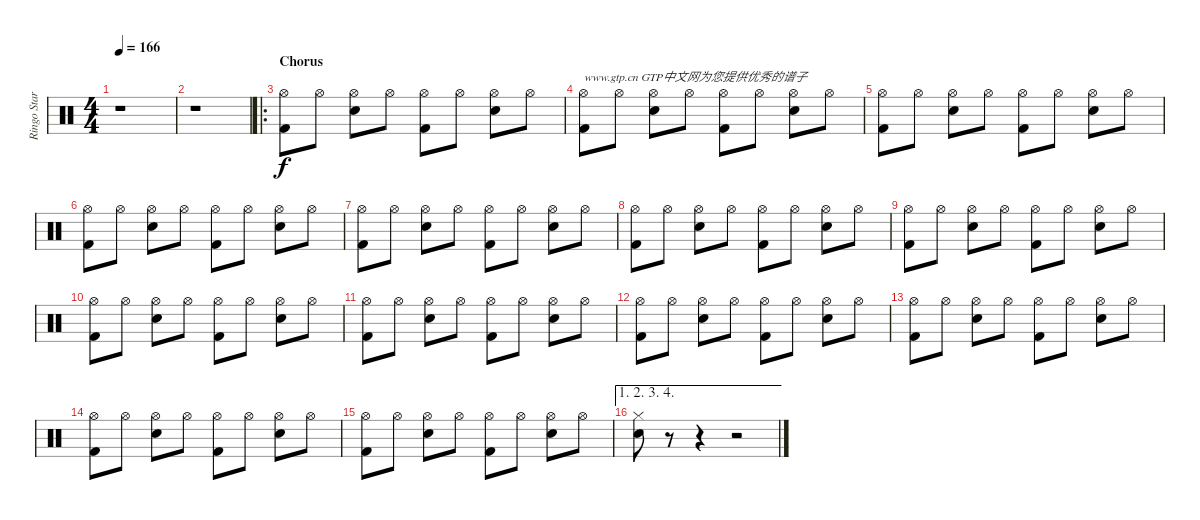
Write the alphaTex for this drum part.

\track ("Ringo Starr" "Ringo Star") {instrument percussion}
\staff {score}
\articulation defaults
\ts (4 4)
\tempo 166
\clef neutral
\ks c
r.1{dy f} |
r.1 |
\ro
\section ("" "Chorus")
("Hi-Hat (open)" "Kick (hit) 2").8 "Hi-Hat (open)".8 ("Hi-Hat (open)" "Electric Snare (hit)").8 "Hi-Hat (open)".8 ("Hi-Hat (open)" "Kick (hit) 2").8 "Hi-Hat (open)".8 ("Hi-Hat (open)" "Electric Snare (hit)").8 "Hi-Hat (open)".8 |
("Hi-Hat (open)" "Kick (hit) 2").8{txt "www.gtp.cn GTP中文网为您提供优秀的谱子"} "Hi-Hat (open)".8 ("Hi-Hat (open)" "Electric Snare (hit)").8 "Hi-Hat (open)".8 ("Hi-Hat (open)" "Kick (hit) 2").8 "Hi-Hat (open)".8 ("Hi-Hat (open)" "Electric Snare (hit)").8 "Hi-Hat (open)".8 |
("Hi-Hat (open)" "Kick (hit) 2").8 "Hi-Hat (open)".8 ("Hi-Hat (open)" "Electric Snare (hit)").8 "Hi-Hat (open)".8 ("Hi-Hat (open)" "Kick (hit) 2").8 "Hi-Hat (open)".8 ("Hi-Hat (open)" "Electric Snare (hit)").8 "Hi-Hat (open)".8 |
("Hi-Hat (open)" "Kick (hit) 2").8 "Hi-Hat (open)".8 ("Hi-Hat (open)" "Electric Snare (hit)").8 "Hi-Hat (open)".8 ("Hi-Hat (open)" "Kick (hit) 2").8 "Hi-Hat (open)".8 ("Hi-Hat (open)" "Electric Snare (hit)").8 "Hi-Hat (open)".8 |
("Hi-Hat (open)" "Kick (hit) 2").8 "Hi-Hat (open)".8 ("Hi-Hat (open)" "Electric Snare (hit)").8 "Hi-Hat (open)".8 ("Hi-Hat (open)" "Kick (hit) 2").8 "Hi-Hat (open)".8 ("Hi-Hat (open)" "Electric Snare (hit)").8 "Hi-Hat (open)".8 |
("Hi-Hat (open)" "Kick (hit) 2").8 "Hi-Hat (open)".8 ("Hi-Hat (open)" "Electric Snare (hit)").8 "Hi-Hat (open)".8 ("Hi-Hat (open)" "Kick (hit) 2").8 "Hi-Hat (open)".8 ("Hi-Hat (open)" "Electric Snare (hit)").8 "Hi-Hat (open)".8 |
("Hi-Hat (open)" "Kick (hit) 2").8 "Hi-Hat (open)".8 ("Hi-Hat (open)" "Electric Snare (hit)").8 "Hi-Hat (open)".8 ("Hi-Hat (open)" "Kick (hit) 2").8 "Hi-Hat (open)".8 ("Hi-Hat (open)" "Electric Snare (hit)").8 "Hi-Hat (open)".8 |
("Hi-Hat (open)" "Kick (hit) 2").8 "Hi-Hat (open)".8 ("Hi-Hat (open)" "Electric Snare (hit)").8 "Hi-Hat (open)".8 ("Hi-Hat (open)" "Kick (hit) 2").8 "Hi-Hat (open)".8 ("Hi-Hat (open)" "Electric Snare (hit)").8 "Hi-Hat (open)".8 |
("Hi-Hat (open)" "Kick (hit) 2").8 "Hi-Hat (open)".8 ("Hi-Hat (open)" "Electric Snare (hit)").8 "Hi-Hat (open)".8 ("Hi-Hat (open)" "Kick (hit) 2").8 "Hi-Hat (open)".8 ("Hi-Hat (open)" "Electric Snare (hit)").8 "Hi-Hat (open)".8 |
("Hi-Hat (open)" "Kick (hit) 2").8 "Hi-Hat (open)".8 ("Hi-Hat (open)" "Electric Snare (hit)").8 "Hi-Hat (open)".8 ("Hi-Hat (open)" "Kick (hit) 2").8 "Hi-Hat (open)".8 ("Hi-Hat (open)" "Electric Snare (hit)").8 "Hi-Hat (open)".8 |
("Hi-Hat (open)" "Kick (hit) 2").8 "Hi-Hat (open)".8 ("Hi-Hat (open)" "Electric Snare (hit)").8 "Hi-Hat (open)".8 ("Hi-Hat (open)" "Kick (hit) 2").8 "Hi-Hat (open)".8 ("Hi-Hat (open)" "Electric Snare (hit)").8 "Hi-Hat (open)".8 |
("Hi-Hat (open)" "Kick (hit) 2").8 "Hi-Hat (open)".8 ("Hi-Hat (open)" "Electric Snare (hit)").8 "Hi-Hat (open)".8 ("Hi-Hat (open)" "Kick (hit) 2").8 "Hi-Hat (open)".8 ("Hi-Hat (open)" "Electric Snare (hit)").8 "Hi-Hat (open)".8 |
("Hi-Hat (open)" "Kick (hit) 2").8 "Hi-Hat (open)".8 ("Hi-Hat (open)" "Electric Snare (hit)").8 "Hi-Hat (open)".8 ("Hi-Hat (open)" "Kick (hit) 2").8 "Hi-Hat (open)".8 ("Hi-Hat (open)" "Electric Snare (hit)").8 "Hi-Hat (open)".8 |
\ae (1 2 3 4)
("Hi-Hat (closed)" "Electric Snare (hit)").8 r.8 r.4 r.2
